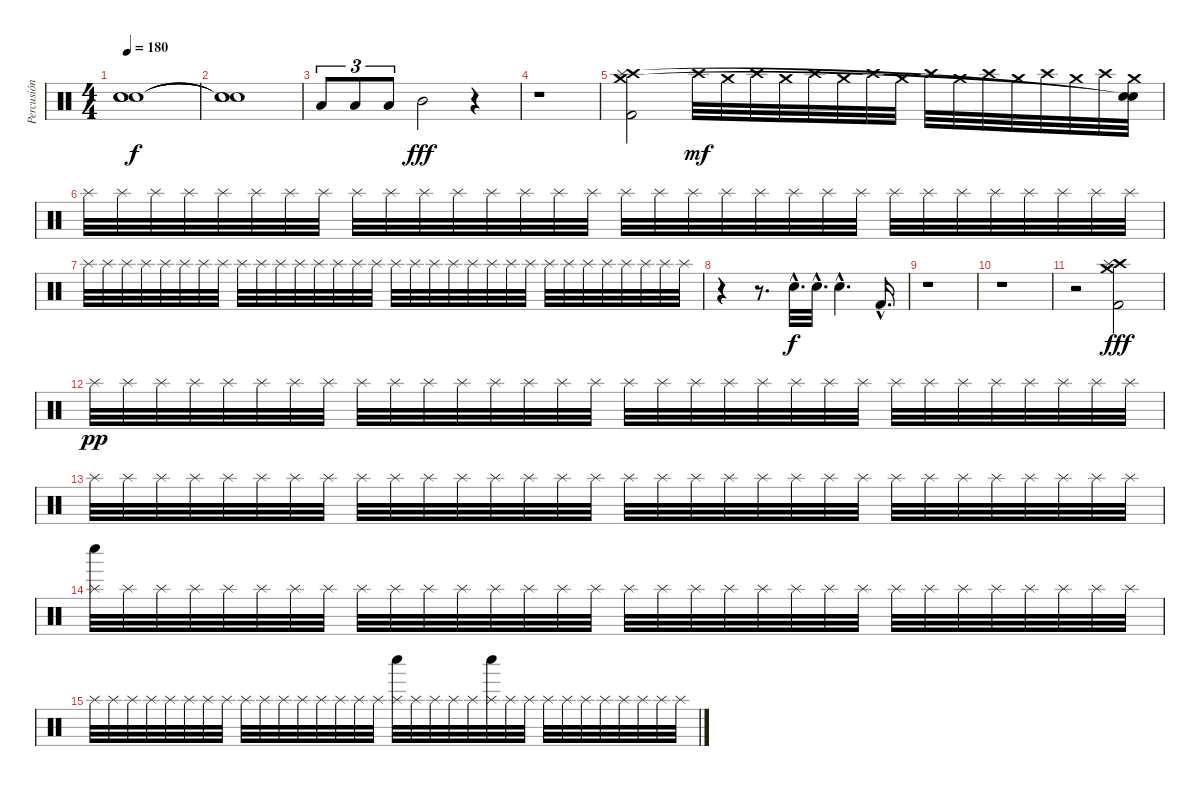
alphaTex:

\track ("Percusión" "Percusión") {instrument percussion}
\staff {score}
\articulation defaults
\ts (4 4)
\tempo 180
\clef neutral
\ks c
("Snare (hit)"{t} "Snare (hit)"{t} "Snare (hit)"{t}).1{dy f} |
("Snare (hit)"{t} "Snare (hit)"{t} "Snare (hit)"{t}).1 |
"Low Tom (hit)".8{tu (3 2)} "Low Tom (hit)".8{tu (3 2)} "Low Tom (hit)".8{tu (3 2)} "Mid Tom (hit)".2{dy fff} r.4 |
r.1 |
("Crash high (hit)" "Splash (hit)" "Crash medium (hit)" "Kick (hit) 2").2 "Crash high (hit)".32{dy mf} "Crash medium (hit)".32 "Crash high (hit)".32 "Crash medium (hit)".32 "Crash high (hit)".32 "Crash medium (hit)".32 "Crash high (hit)".32 "Crash medium (hit)".32 "Crash high (hit)".32 "Crash medium (hit)".32 "Crash high (hit)".32 "Crash medium (hit)".32 "Crash high (hit)".32 "Crash medium (hit)".32 "Crash high (hit)".32 ("Crash medium (hit)" "Snare (hit)"{t} "Snare (hit)"{t}).32 |
"Splash (hit)".32 "Splash (hit)".32 "Splash (hit)".32 "Splash (hit)".32 "Splash (hit)".32 "Splash (hit)".32 "Splash (hit)".32 "Splash (hit)".32 "Splash (hit)".32 "Splash (hit)".32 "Splash (hit)".32 "Splash (hit)".32 "Splash (hit)".32 "Splash (hit)".32 "Splash (hit)".32 "Splash (hit)".32 "Splash (hit)".32 "Splash (hit)".32 "Splash (hit)".32 "Splash (hit)".32 "Splash (hit)".32 "Splash (hit)".32 "Splash (hit)".32 "Splash (hit)".32 "Splash (hit)".32 "Splash (hit)".32 "Splash (hit)".32 "Splash (hit)".32 "Splash (hit)".32 "Splash (hit)".32 "Splash (hit)".32 "Splash (hit)".32 |
"Splash (hit)".32 "Splash (hit)".32 "Splash (hit)".32 "Splash (hit)".32 "Splash (hit)".32 "Splash (hit)".32 "Splash (hit)".32 "Splash (hit)".32 "Splash (hit)".32 "Splash (hit)".32 "Splash (hit)".32 "Splash (hit)".32 "Splash (hit)".32 "Splash (hit)".32 "Splash (hit)".32 "Splash (hit)".32 "Splash (hit)".32 "Splash (hit)".32 "Splash (hit)".32 "Splash (hit)".32 "Splash (hit)".32 "Splash (hit)".32 "Splash (hit)".32 "Splash (hit)".32 "Splash (hit)".32 "Splash (hit)".32 "Splash (hit)".32 "Splash (hit)".32 "Splash (hit)".32 "Splash (hit)".32 "Splash (hit)".32 "Splash (hit)".32 |
r.4 r.8{d} "Snare (hit) 2"{hac}.32{d dy f} "Snare (hit) 2"{hac}.32{d} "Snare (hit) 2"{hac}.4{d} "Kick (hit) 2"{hac}.16{d} |
r.1 |
r.1 |
r.2 ("Crash medium (hit)" "Crash high (hit)" "Splash (hit)" "Kick (hit) 2").2{dy fff} |
"Splash (hit)".32{dy pp} "Splash (hit)".32 "Splash (hit)".32 "Splash (hit)".32 "Splash (hit)".32 "Splash (hit)".32 "Splash (hit)".32 "Splash (hit)".32 "Splash (hit)".32 "Splash (hit)".32 "Splash (hit)".32 "Splash (hit)".32 "Splash (hit)".32 "Splash (hit)".32 "Splash (hit)".32 "Splash (hit)".32 "Splash (hit)".32 "Splash (hit)".32 "Splash (hit)".32 "Splash (hit)".32 "Splash (hit)".32 "Splash (hit)".32 "Splash (hit)".32 "Splash (hit)".32 "Splash (hit)".32 "Splash (hit)".32 "Splash (hit)".32 "Splash (hit)".32 "Splash (hit)".32 "Splash (hit)".32 "Splash (hit)".32 "Splash (hit)".32 |
"Splash (hit)".32 "Splash (hit)".32 "Splash (hit)".32 "Splash (hit)".32 "Splash (hit)".32 "Splash (hit)".32 "Splash (hit)".32 "Splash (hit)".32 "Splash (hit)".32 "Splash (hit)".32 "Splash (hit)".32 "Splash (hit)".32 "Splash (hit)".32 "Splash (hit)".32 "Splash (hit)".32 "Splash (hit)".32 "Splash (hit)".32 "Splash (hit)".32 "Splash (hit)".32 "Splash (hit)".32 "Splash (hit)".32 "Splash (hit)".32 "Splash (hit)".32 "Splash (hit)".32 "Splash (hit)".32 "Splash (hit)".32 "Splash (hit)".32 "Splash (hit)".32 "Splash (hit)".32 "Splash (hit)".32 "Splash (hit)".32 "Splash (hit)".32 |
("Splash (hit)" "Whistle low (hit)").32 "Splash (hit)".32 "Splash (hit)".32 "Splash (hit)".32 "Splash (hit)".32 "Splash (hit)".32 "Splash (hit)".32 "Splash (hit)".32 "Splash (hit)".32 "Splash (hit)".32 "Splash (hit)".32 "Splash (hit)".32 "Splash (hit)".32 "Splash (hit)".32 "Splash (hit)".32 "Splash (hit)".32 "Splash (hit)".32 "Splash (hit)".32 "Splash (hit)".32 "Splash (hit)".32 "Splash (hit)".32 "Splash (hit)".32 "Splash (hit)".32 "Splash (hit)".32 "Splash (hit)".32 "Splash (hit)".32 "Splash (hit)".32 "Splash (hit)".32 "Splash (hit)".32 "Splash (hit)".32 "Splash (hit)".32 "Splash (hit)".32 |
"Splash (hit)".32 "Splash (hit)".32 "Splash (hit)".32 "Splash (hit)".32 "Splash (hit)".32 "Splash (hit)".32 "Splash (hit)".32 "Splash (hit)".32 "Splash (hit)".32 "Splash (hit)".32 "Splash (hit)".32 "Splash (hit)".32 "Splash (hit)".32 "Splash (hit)".32 "Splash (hit)".32 "Splash (hit)".32 ("Splash (hit)" "Whistle low (hit)").32 "Splash (hit)".32 "Splash (hit)".32 "Splash (hit)".32 "Splash (hit)".32 ("Splash (hit)" "Whistle low (hit)").32 "Splash (hit)".32 "Splash (hit)".32 "Splash (hit)".32 "Splash (hit)".32 "Splash (hit)".32 "Splash (hit)".32 "Splash (hit)".32 "Splash (hit)".32 "Splash (hit)".32 "Splash (hit)".32
